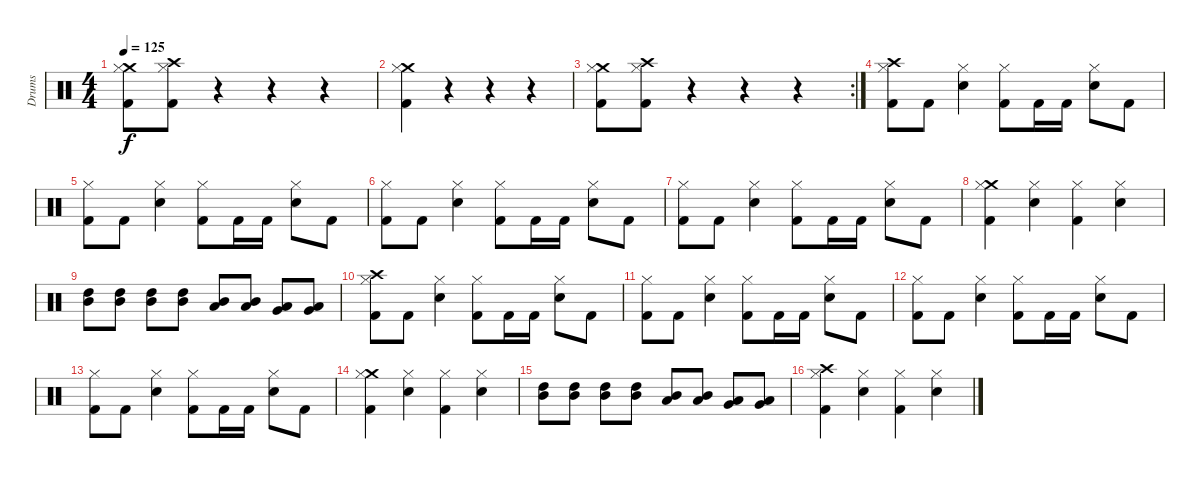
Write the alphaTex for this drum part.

\track ("Drums" "Drums") {instrument percussion}
\staff {score}
\articulation defaults
\ts (4 4)
\tempo 125
\clef neutral
\ks c
("Kick (hit) 2" "Crash medium (hit)" "Hi-Hat (closed)").8{dy f} ("Kick (hit) 2" "Crash high (hit)" "Hi-Hat (closed)").8 r.4 r.4 r.4 |
("Kick (hit) 2" "Crash medium (hit)" "Hi-Hat (closed)").4 r.4 r.4 r.4 |
\rc 2
("Kick (hit) 2" "Crash medium (hit)" "Hi-Hat (closed)").8 ("Kick (hit) 2" "Crash high (hit)" "Hi-Hat (closed)").8 r.4 r.4 r.4 |
("Kick (hit) 2" "Crash high (hit)" "Hi-Hat (closed)").8 "Kick (hit) 2".8 ("Electric Snare (hit)" "Hi-Hat (closed)").4 ("Kick (hit) 2" "Hi-Hat (closed)").8 "Kick (hit) 2".16 "Kick (hit) 2".16 ("Electric Snare (hit)" "Hi-Hat (closed)").8 "Kick (hit) 2".8 |
("Kick (hit) 2" "Hi-Hat (closed)").8 "Kick (hit) 2".8 ("Electric Snare (hit)" "Hi-Hat (closed)").4 ("Kick (hit) 2" "Hi-Hat (closed)").8 "Kick (hit) 2".16 "Kick (hit) 2".16 ("Electric Snare (hit)" "Hi-Hat (closed)").8 "Kick (hit) 2".8 |
("Kick (hit) 2" "Hi-Hat (closed)").8 "Kick (hit) 2".8 ("Electric Snare (hit)" "Hi-Hat (closed)").4 ("Kick (hit) 2" "Hi-Hat (closed)").8 "Kick (hit) 2".16 "Kick (hit) 2".16 ("Electric Snare (hit)" "Hi-Hat (closed)").8 "Kick (hit) 2".8 |
("Kick (hit) 2" "Hi-Hat (closed)").8 "Kick (hit) 2".8 ("Electric Snare (hit)" "Hi-Hat (closed)").4 ("Kick (hit) 2" "Hi-Hat (closed)").8 "Kick (hit) 2".16 "Kick (hit) 2".16 ("Electric Snare (hit)" "Hi-Hat (closed)").8 "Kick (hit) 2".8 |
("Kick (hit) 2" "Crash medium (hit)" "Hi-Hat (closed)").4 ("Electric Snare (hit)" "Hi-Hat (closed)").4 ("Kick (hit) 2" "Hi-Hat (closed)").4 ("Electric Snare (hit)" "Hi-Hat (closed)").4 |
("Mid Tom (hit)" "High Tom (hit)").8 ("Mid Tom (hit)" "High Tom (hit)").8 ("Mid Tom (hit)" "High Tom (hit)").8 ("Mid Tom (hit)" "High Tom (hit)").8 ("Low Tom (hit)" "Mid Tom (hit)").8 ("Low Tom (hit)" "Mid Tom (hit)").8 ("Very Low Tom (hit)" "Low Tom (hit)").8 ("Very Low Tom (hit)" "Low Tom (hit)").8 |
("Kick (hit) 2" "Crash high (hit)" "Hi-Hat (closed)").8 "Kick (hit) 2".8 ("Electric Snare (hit)" "Hi-Hat (closed)").4 ("Kick (hit) 2" "Hi-Hat (closed)").8 "Kick (hit) 2".16 "Kick (hit) 2".16 ("Electric Snare (hit)" "Hi-Hat (closed)").8 "Kick (hit) 2".8 |
("Kick (hit) 2" "Hi-Hat (closed)").8 "Kick (hit) 2".8 ("Electric Snare (hit)" "Hi-Hat (closed)").4 ("Kick (hit) 2" "Hi-Hat (closed)").8 "Kick (hit) 2".16 "Kick (hit) 2".16 ("Electric Snare (hit)" "Hi-Hat (closed)").8 "Kick (hit) 2".8 |
("Kick (hit) 2" "Hi-Hat (closed)").8 "Kick (hit) 2".8 ("Electric Snare (hit)" "Hi-Hat (closed)").4 ("Kick (hit) 2" "Hi-Hat (closed)").8 "Kick (hit) 2".16 "Kick (hit) 2".16 ("Electric Snare (hit)" "Hi-Hat (closed)").8 "Kick (hit) 2".8 |
("Kick (hit) 2" "Hi-Hat (closed)").8 "Kick (hit) 2".8 ("Electric Snare (hit)" "Hi-Hat (closed)").4 ("Kick (hit) 2" "Hi-Hat (closed)").8 "Kick (hit) 2".16 "Kick (hit) 2".16 ("Electric Snare (hit)" "Hi-Hat (closed)").8 "Kick (hit) 2".8 |
("Kick (hit) 2" "Crash medium (hit)" "Hi-Hat (closed)").4 ("Electric Snare (hit)" "Hi-Hat (closed)").4 ("Kick (hit) 2" "Hi-Hat (closed)").4 ("Electric Snare (hit)" "Hi-Hat (closed)").4 |
("Mid Tom (hit)" "High Tom (hit)").8 ("Mid Tom (hit)" "High Tom (hit)").8 ("Mid Tom (hit)" "High Tom (hit)").8 ("Mid Tom (hit)" "High Tom (hit)").8 ("Low Tom (hit)" "Mid Tom (hit)").8 ("Low Tom (hit)" "Mid Tom (hit)").8 ("Very Low Tom (hit)" "Low Tom (hit)").8 ("Very Low Tom (hit)" "Low Tom (hit)").8 |
("Kick (hit) 2" "Crash high (hit)" "Hi-Hat (closed)").4 ("Electric Snare (hit)" "Hi-Hat (closed)").4 ("Kick (hit) 2" "Hi-Hat (closed)").4 ("Electric Snare (hit)" "Hi-Hat (closed)").4
